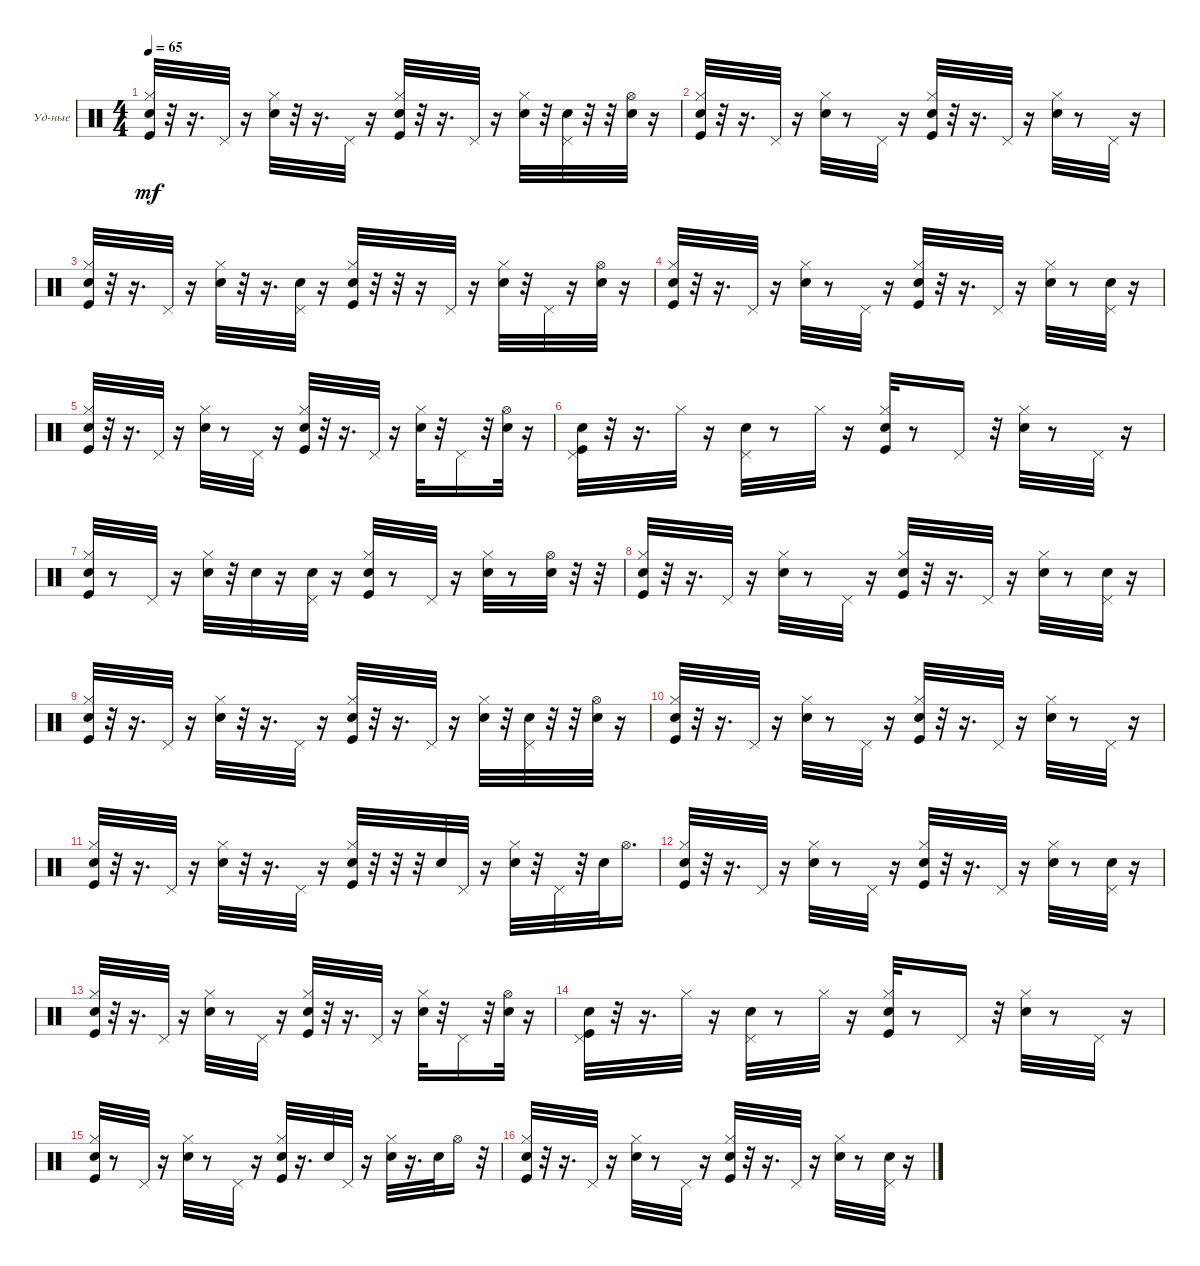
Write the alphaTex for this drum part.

\bracketExtendMode groupsimilarinstruments
\firstSystemTrackNameOrientation horizontal
\otherSystemsTrackNameOrientation horizontal
\track ("Ударные" "Уд-ные") {instrument percussion}
\staff {score}
\articulation defaults
\ts (4 4)
\tempo 65
\clef neutral
\ks c
("Kick (hit)" "Hi-Hat (closed)" "Snare (hit) 2").32{dy mf} r.32 r.16{d} "Pedal Hi-Hat (hit)".32 r.16 ("Hi-Hat (closed)" "Snare (hit) 2").32 r.32 r.16{d} "Pedal Hi-Hat (hit)".32 r.16 ("Kick (hit)" "Hi-Hat (closed)" "Snare (hit) 2").32 r.32 r.16{d} "Pedal Hi-Hat (hit)".32 r.16 ("Hi-Hat (closed)" "Snare (hit) 2").32 r.32 ("Pedal Hi-Hat (hit)" "Snare (hit) 2").32 r.32 r.32 ("Hi-Hat (open)" "Snare (hit) 2").32 r.16 |
("Kick (hit)" "Hi-Hat (closed)" "Snare (hit) 2").32 r.32 r.16{d} "Pedal Hi-Hat (hit)".32 r.16 ("Hi-Hat (closed)" "Snare (hit) 2").32 r.8 "Pedal Hi-Hat (hit)".32 r.16 ("Kick (hit)" "Hi-Hat (closed)" "Snare (hit) 2").32 r.32 r.16{d} "Pedal Hi-Hat (hit)".32 r.16 ("Hi-Hat (closed)" "Snare (hit) 2").32 r.8 "Pedal Hi-Hat (hit)".32 r.16 |
("Kick (hit)" "Hi-Hat (closed)" "Snare (hit) 2").32 r.32 r.16{d} "Pedal Hi-Hat (hit)".32 r.16 ("Hi-Hat (closed)" "Snare (hit) 2").32 r.32 r.16{d} ("Pedal Hi-Hat (hit)" "Snare (hit) 2").32 r.16 ("Hi-Hat (closed)" "Kick (hit)" "Snare (hit) 2").32 r.32 r.32 r.16 "Pedal Hi-Hat (hit)".32 r.16 ("Hi-Hat (closed)" "Snare (hit) 2").32 r.32 "Pedal Hi-Hat (hit)".32 r.16 ("Hi-Hat (open)" "Snare (hit) 2").32 r.16 |
("Kick (hit)" "Hi-Hat (closed)" "Snare (hit) 2").32 r.32 r.16{d} "Pedal Hi-Hat (hit)".32 r.16 ("Hi-Hat (closed)" "Snare (hit) 2").32 r.8 "Pedal Hi-Hat (hit)".32 r.16 ("Hi-Hat (closed)" "Kick (hit)" "Snare (hit) 2").32 r.32 r.16{d} "Pedal Hi-Hat (hit)".32 r.16 ("Hi-Hat (closed)" "Snare (hit) 2").32 r.8 ("Pedal Hi-Hat (hit)" "Snare (hit) 2").32 r.16 |
("Kick (hit)" "Hi-Hat (closed)" "Snare (hit) 2").32 r.32 r.16{d} "Pedal Hi-Hat (hit)".32 r.16 ("Hi-Hat (closed)" "Snare (hit) 2").32 r.8 "Pedal Hi-Hat (hit)".32 r.16 ("Kick (hit)" "Hi-Hat (closed)" "Snare (hit) 2").32 r.32 r.16{d} "Pedal Hi-Hat (hit)".32 r.16 ("Hi-Hat (closed)" "Snare (hit) 2").32 r.32 "Pedal Hi-Hat (hit)".16 r.32 ("Hi-Hat (open)" "Snare (hit) 2").32 r.16 |
("Kick (hit)" "Pedal Hi-Hat (hit)" "Snare (hit) 2").32 r.32 r.16{d} "Hi-Hat (closed)".32 r.16 ("Pedal Hi-Hat (hit)" "Snare (hit) 2").32 r.8 "Hi-Hat (closed)".32 r.16 ("Hi-Hat (closed)" "Kick (hit)" "Snare (hit) 2").32 r.8 "Pedal Hi-Hat (hit)".16 r.32 ("Hi-Hat (closed)" "Snare (hit) 2").32 r.8 "Pedal Hi-Hat (hit)".32 r.16 |
("Kick (hit)" "Hi-Hat (closed)" "Snare (hit) 2").32 r.8 "Pedal Hi-Hat (hit)".32 r.16 ("Hi-Hat (closed)" "Snare (hit) 2").32 r.32 "Snare (hit) 2".32 r.16 ("Pedal Hi-Hat (hit)" "Snare (hit) 2").32 r.16 ("Kick (hit)" "Hi-Hat (closed)" "Snare (hit) 2").32 r.8 "Pedal Hi-Hat (hit)".32 r.16 ("Hi-Hat (closed)" "Snare (hit) 2").32 r.8 ("Hi-Hat (open)" "Snare (hit) 2").32 r.32 r.32 |
("Hi-Hat (closed)" "Kick (hit)" "Snare (hit) 2").32 r.32 r.16{d} "Pedal Hi-Hat (hit)".32 r.16 ("Hi-Hat (closed)" "Snare (hit) 2").32 r.8 "Pedal Hi-Hat (hit)".32 r.16 ("Kick (hit)" "Hi-Hat (closed)" "Snare (hit) 2").32 r.32 r.16{d} "Pedal Hi-Hat (hit)".32 r.16 ("Hi-Hat (closed)" "Snare (hit) 2").32 r.8 ("Pedal Hi-Hat (hit)" "Snare (hit) 2").32 r.16 |
("Kick (hit)" "Hi-Hat (closed)" "Snare (hit) 2").32 r.32 r.16{d} "Pedal Hi-Hat (hit)".32 r.16 ("Hi-Hat (closed)" "Snare (hit) 2").32 r.32 r.16{d} "Pedal Hi-Hat (hit)".32 r.16 ("Kick (hit)" "Hi-Hat (closed)" "Snare (hit) 2").32 r.32 r.16{d} "Pedal Hi-Hat (hit)".32 r.16 ("Hi-Hat (closed)" "Snare (hit) 2").32 r.32 ("Pedal Hi-Hat (hit)" "Snare (hit) 2").32 r.32 r.32 ("Hi-Hat (open)" "Snare (hit) 2").32 r.16 |
("Kick (hit)" "Hi-Hat (closed)" "Snare (hit) 2").32 r.32 r.16{d} "Pedal Hi-Hat (hit)".32 r.16 ("Hi-Hat (closed)" "Snare (hit) 2").32 r.8 "Pedal Hi-Hat (hit)".32 r.16 ("Kick (hit)" "Hi-Hat (closed)" "Snare (hit) 2").32 r.32 r.16{d} "Pedal Hi-Hat (hit)".32 r.16 ("Hi-Hat (closed)" "Snare (hit) 2").32 r.8 "Pedal Hi-Hat (hit)".32 r.16 |
("Kick (hit)" "Hi-Hat (closed)" "Snare (hit) 2").32 r.32 r.16{d} "Pedal Hi-Hat (hit)".32 r.16 ("Hi-Hat (closed)" "Snare (hit) 2").32 r.32 r.16{d} "Pedal Hi-Hat (hit)".32 r.16 ("Hi-Hat (closed)" "Kick (hit)" "Snare (hit) 2").32 r.32 r.32 r.32 "Snare (hit) 2".32 "Pedal Hi-Hat (hit)".32 r.16 ("Hi-Hat (closed)" "Snare (hit) 2").32 r.32 "Pedal Hi-Hat (hit)".32 r.32 "Snare (hit) 2".32 "Hi-Hat (open)".16{d} |
("Kick (hit)" "Hi-Hat (closed)" "Snare (hit) 2").32 r.32 r.16{d} "Pedal Hi-Hat (hit)".32 r.16 ("Hi-Hat (closed)" "Snare (hit) 2").32 r.8 "Pedal Hi-Hat (hit)".32 r.16 ("Hi-Hat (closed)" "Kick (hit)" "Snare (hit) 2").32 r.32 r.16{d} "Pedal Hi-Hat (hit)".32 r.16 ("Hi-Hat (closed)" "Snare (hit) 2").32 r.8 ("Pedal Hi-Hat (hit)" "Snare (hit) 2").32 r.16 |
("Kick (hit)" "Hi-Hat (closed)" "Snare (hit) 2").32 r.32 r.16{d} "Pedal Hi-Hat (hit)".32 r.16 ("Hi-Hat (closed)" "Snare (hit) 2").32 r.8 "Pedal Hi-Hat (hit)".32 r.16 ("Kick (hit)" "Hi-Hat (closed)" "Snare (hit) 2").32 r.32 r.16{d} "Pedal Hi-Hat (hit)".32 r.16 ("Hi-Hat (closed)" "Snare (hit) 2").32 r.32 "Pedal Hi-Hat (hit)".16 r.32 ("Hi-Hat (open)" "Snare (hit) 2").32 r.16 |
("Kick (hit)" "Pedal Hi-Hat (hit)" "Snare (hit) 2").32 r.32 r.16{d} "Hi-Hat (closed)".32 r.16 ("Pedal Hi-Hat (hit)" "Snare (hit) 2").32 r.8 "Hi-Hat (closed)".32 r.16 ("Hi-Hat (closed)" "Kick (hit)" "Snare (hit) 2").32 r.8 "Pedal Hi-Hat (hit)".16 r.32 ("Hi-Hat (closed)" "Snare (hit) 2").32 r.8 "Pedal Hi-Hat (hit)".32 r.16 |
("Kick (hit)" "Hi-Hat (closed)" "Snare (hit) 2").32 r.8 "Pedal Hi-Hat (hit)".32 r.16 ("Hi-Hat (closed)" "Snare (hit) 2").32 r.8 "Pedal Hi-Hat (hit)".32 r.16 ("Kick (hit)" "Hi-Hat (closed)" "Snare (hit) 2").32 r.16{d} "Snare (hit) 2".32 "Pedal Hi-Hat (hit)".32 r.16 ("Hi-Hat (closed)" "Snare (hit) 2").32 r.16{d} "Snare (hit) 2".32 "Hi-Hat (open)".16 r.32 |
("Kick (hit)" "Hi-Hat (closed)" "Snare (hit) 2").32 r.32 r.16{d} "Pedal Hi-Hat (hit)".32 r.16 ("Hi-Hat (closed)" "Snare (hit) 2").32 r.8 "Pedal Hi-Hat (hit)".32 r.16 ("Hi-Hat (closed)" "Kick (hit)" "Snare (hit) 2").32 r.32 r.16{d} "Pedal Hi-Hat (hit)".32 r.16 ("Hi-Hat (closed)" "Snare (hit) 2").32 r.8 ("Pedal Hi-Hat (hit)" "Snare (hit) 2").32 r.16
